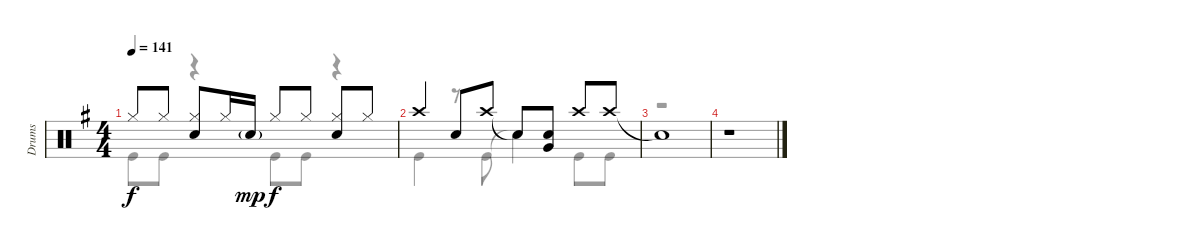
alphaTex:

\track ("Drums" "Drums") {instrument percussion}
\staff {score}
\articulation defaults
\voice
\ts (4 4)
\tempo 141
\clef neutral
\ks g "Hi-Hat (closed)".8{dy f} "Hi-Hat (closed)".8
("Hi-Hat (closed)" "Snare (hit) 2").8 "Hi-Hat (closed)".16 "Snare (hit) 2"{g}.16{dy mp} "Hi-Hat (closed)".8{dy f} "Hi-Hat (closed)".8 ("Hi-Hat (closed)" "Snare (hit) 2").8 "Hi-Hat (closed)".8 |
"Crash high (hit)".4 "Snare (hit) 2".8 "Crash high (hit)".8 "Snare (hit)"{t}.8 ("Snare (hit) 2" "Very Low Tom (hit)").8 "Crash high (hit)".8 "Crash high (hit)".8 |
"Snare (hit)"{t}.1 |
r.1
\voice
\clef neutral
\ottava regular
\simile none
\ks g "Kick (hit)".8{dy f} "Kick (hit)".8
r.4 "Kick (hit)".8 "Kick (hit)".8 r.4 |
"Kick (hit)".4 r.8 "Kick (hit)".8 "Snare (hit)"{t}.4 "Kick (hit)".8 "Kick (hit)".8 |
r.1 |
r.1
